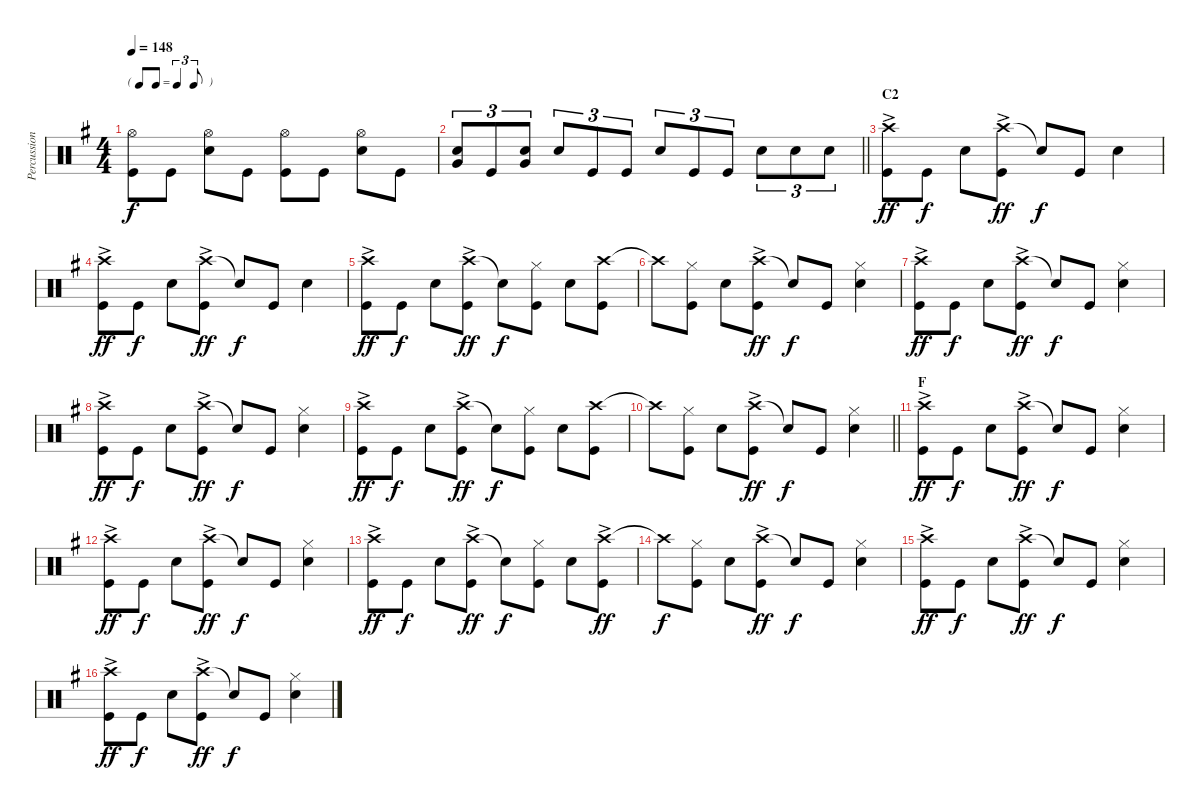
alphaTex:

\track ("Percussion" "Percussion") {instrument percussion}
\staff {score}
\articulation defaults
\ts (4 4)
\tf triplet8th
\tempo 148
\clef neutral
\ks g
("Hi-Hat (open)" "Kick (hit)").8{dy f} "Kick (hit)".8 ("Hi-Hat (open)" "Snare (hit) 2").8 "Kick (hit)".8 ("Hi-Hat (open)" "Kick (hit)").8 "Kick (hit)".8 ("Hi-Hat (open)" "Snare (hit) 2").8 "Kick (hit)".8 |
\barLineRight lightlight
("Snare (hit) 2" "Very Low Tom (hit)").8{tu (3 2)} "Kick (hit)".8{tu (3 2)} ("Snare (hit) 2" "Very Low Tom (hit)").8{tu (3 2)} "Snare (hit) 2".8{tu (3 2)} "Kick (hit)".8{tu (3 2)} "Kick (hit)".8{tu (3 2)} "Snare (hit) 2".8{tu (3 2)} "Kick (hit)".8{tu (3 2)} "Kick (hit)".8{tu (3 2)} "Snare (hit) 2".8{tu (3 2)} "Snare (hit) 2".8{tu (3 2)} "Snare (hit) 2".8{tu (3 2)} |
\section ("" "C2")
("Crash high (hit)"{ac} "Kick (hit)").8{dy ff} "Kick (hit)".8{dy f} "Snare (hit) 2".8 ("Crash high (hit)"{ac} "Kick (hit)").8{dy ff} "Snare (hit)"{t}.8{dy f} "Kick (hit)".8 "Snare (hit) 2".4 |
("Crash high (hit)"{ac} "Kick (hit)").8{dy ff} "Kick (hit)".8{dy f} "Snare (hit) 2".8 ("Crash high (hit)"{ac} "Kick (hit)").8{dy ff} "Snare (hit)"{t}.8{dy f} "Kick (hit)".8 "Snare (hit) 2".4 |
("Crash high (hit)"{ac} "Kick (hit)").8{dy ff} "Kick (hit)".8{dy f} "Snare (hit) 2".8 ("Crash high (hit)"{ac} "Kick (hit)").8{dy ff} "Snare (hit)"{t}.8{dy f} ("Hi-Hat (closed)" "Kick (hit)").8 "Snare (hit) 2".8 ("Crash high (hit)" "Kick (hit)").8 |
"Crash high (hit)"{t}.8 ("Hi-Hat (closed)" "Kick (hit)").8 "Snare (hit) 2".8 ("Crash high (hit)"{ac} "Kick (hit)").8{dy ff} "Snare (hit)"{t}.8{dy f} "Kick (hit)".8 ("Hi-Hat (closed)" "Snare (hit) 2").4 |
("Crash high (hit)"{ac} "Kick (hit)").8{dy ff} "Kick (hit)".8{dy f} "Snare (hit) 2".8 ("Crash high (hit)"{ac} "Kick (hit)").8{dy ff} "Snare (hit)"{t}.8{dy f} "Kick (hit)".8 ("Hi-Hat (closed)" "Snare (hit) 2").4 |
("Crash high (hit)"{ac} "Kick (hit)").8{dy ff} "Kick (hit)".8{dy f} "Snare (hit) 2".8 ("Crash high (hit)"{ac} "Kick (hit)").8{dy ff} "Snare (hit)"{t}.8{dy f} "Kick (hit)".8 ("Hi-Hat (closed)" "Snare (hit) 2").4 |
("Crash high (hit)"{ac} "Kick (hit)").8{dy ff} "Kick (hit)".8{dy f} "Snare (hit) 2".8 ("Crash high (hit)"{ac} "Kick (hit)").8{dy ff} "Snare (hit)"{t}.8{dy f} ("Hi-Hat (closed)" "Kick (hit)").8 "Snare (hit) 2".8 ("Crash high (hit)" "Kick (hit)").8 |
\barLineRight lightlight "Crash high (hit)"{t}.8
("Hi-Hat (closed)" "Kick (hit)").8 "Snare (hit) 2".8 ("Crash high (hit)"{ac} "Kick (hit)").8{dy ff} "Snare (hit)"{t}.8{dy f} "Kick (hit)".8 ("Hi-Hat (closed)" "Snare (hit) 2").4 |
\section ("" "F")
("Crash high (hit)"{ac} "Kick (hit)").8{dy ff} "Kick (hit)".8{dy f} "Snare (hit) 2".8 ("Crash high (hit)"{ac} "Kick (hit)").8{dy ff} "Snare (hit)"{t}.8{dy f} "Kick (hit)".8 ("Hi-Hat (closed)" "Snare (hit) 2").4 |
("Crash high (hit)"{ac} "Kick (hit)").8{dy ff} "Kick (hit)".8{dy f} "Snare (hit) 2".8 ("Crash high (hit)"{ac} "Kick (hit)").8{dy ff} "Snare (hit)"{t}.8{dy f} "Kick (hit)".8 ("Hi-Hat (closed)" "Snare (hit) 2").4 |
("Crash high (hit)"{ac} "Kick (hit)").8{dy ff} "Kick (hit)".8{dy f} "Snare (hit) 2".8 ("Crash high (hit)"{ac} "Kick (hit)").8{dy ff} "Snare (hit)"{t}.8{dy f} ("Hi-Hat (closed)" "Kick (hit)").8 "Snare (hit) 2".8 ("Crash high (hit)"{ac} "Kick (hit)").8{dy ff} |
"Crash high (hit)"{t}.8{dy f} ("Hi-Hat (closed)" "Kick (hit)").8 "Snare (hit) 2".8 ("Crash high (hit)"{ac} "Kick (hit)").8{dy ff} "Snare (hit)"{t}.8{dy f} "Kick (hit)".8 ("Hi-Hat (closed)" "Snare (hit) 2").4 |
("Crash high (hit)"{ac} "Kick (hit)").8{dy ff} "Kick (hit)".8{dy f} "Snare (hit) 2".8 ("Crash high (hit)"{ac} "Kick (hit)").8{dy ff} "Snare (hit)"{t}.8{dy f} "Kick (hit)".8 ("Hi-Hat (closed)" "Snare (hit) 2").4 |
("Crash high (hit)"{ac} "Kick (hit)").8{dy ff} "Kick (hit)".8{dy f} "Snare (hit) 2".8 ("Crash high (hit)"{ac} "Kick (hit)").8{dy ff} "Snare (hit)"{t}.8{dy f} "Kick (hit)".8 ("Hi-Hat (closed)" "Snare (hit) 2").4
